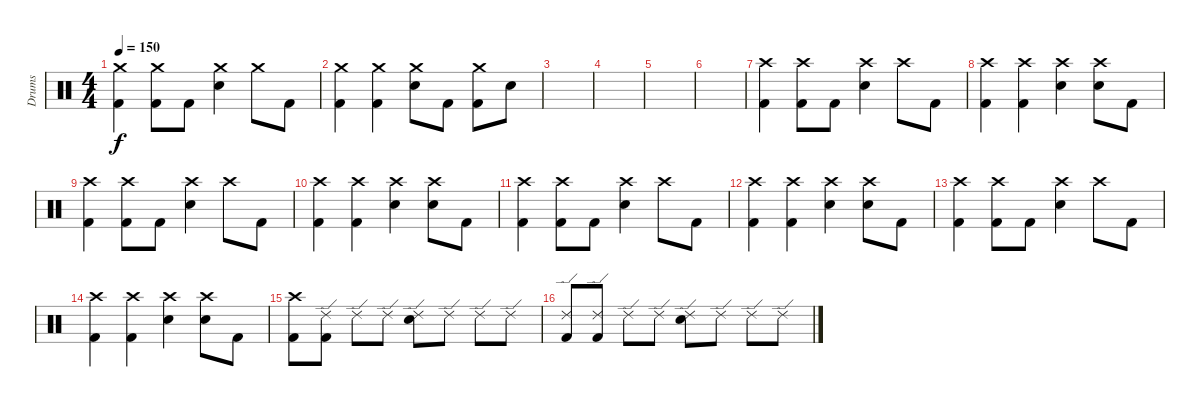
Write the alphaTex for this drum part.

\track ("Drums" "Drums") {instrument percussion}
\staff {score}
\articulation defaults
\ts (4 4)
\tempo 150
\clef neutral
\ks c
("Crash medium (hit)" "Kick (hit) 2").4{dy f} ("Crash medium (hit)" "Kick (hit) 2").8 "Kick (hit) 2".8 ("Crash medium (hit)" "Snare (hit) 2").4 "Crash medium (hit)".8 "Kick (hit) 2".8 |
("Crash medium (hit)" "Kick (hit) 2").4 ("Crash medium (hit)" "Kick (hit) 2").4 ("Crash medium (hit)" "Snare (hit) 2").8 "Kick (hit) 2".8 ("Crash medium (hit)" "Kick (hit) 2").8 "Snare (hit) 2".8 |
|
|
|
|
("Crash high (hit)" "Kick (hit) 2").4 ("Crash high (hit)" "Kick (hit) 2").8 "Kick (hit) 2".8 ("Crash high (hit)" "Snare (hit) 2").4 "Crash high (hit)".8 "Kick (hit) 2".8 |
("Crash high (hit)" "Kick (hit) 2").4 ("Crash high (hit)" "Kick (hit) 2").4 ("Crash high (hit)" "Snare (hit) 2").4 ("Crash high (hit)" "Snare (hit) 2").8 "Kick (hit) 2".8 |
("Crash high (hit)" "Kick (hit) 2").4 ("Crash high (hit)" "Kick (hit) 2").8 "Kick (hit) 2".8 ("Crash high (hit)" "Snare (hit) 2").4 "Crash high (hit)".8 "Kick (hit) 2".8 |
("Crash high (hit)" "Kick (hit) 2").4 ("Crash high (hit)" "Kick (hit) 2").4 ("Crash high (hit)" "Snare (hit) 2").4 ("Crash high (hit)" "Snare (hit) 2").8 "Kick (hit) 2".8 |
("Crash high (hit)" "Kick (hit) 2").4 ("Crash high (hit)" "Kick (hit) 2").8 "Kick (hit) 2".8 ("Crash high (hit)" "Snare (hit) 2").4 "Crash high (hit)".8 "Kick (hit) 2".8 |
("Crash high (hit)" "Kick (hit) 2").4 ("Crash high (hit)" "Kick (hit) 2").4 ("Crash high (hit)" "Snare (hit) 2").4 ("Crash high (hit)" "Snare (hit) 2").8 "Kick (hit) 2".8 |
("Crash high (hit)" "Kick (hit) 2").4 ("Crash high (hit)" "Kick (hit) 2").8 "Kick (hit) 2".8 ("Crash high (hit)" "Snare (hit) 2").4 "Crash high (hit)".8 "Kick (hit) 2".8 |
("Crash high (hit)" "Kick (hit) 2").4 ("Crash high (hit)" "Kick (hit) 2").4 ("Crash high (hit)" "Snare (hit) 2").4 ("Crash high (hit)" "Snare (hit) 2").8 "Kick (hit) 2".8 |
("Crash high (hit)" "Kick (hit) 2").8 ("Ride (edge) 2" "Kick (hit) 2").8 "Ride (edge) 2".8 "Ride (edge) 2".8 ("Ride (edge) 2" "Snare (hit) 2").8 "Ride (edge) 2".8 "Ride (edge) 2".8 "Ride (edge) 2".8 |
("Ride (edge) 2" "Kick (hit) 2").8 ("Ride (edge) 2" "Kick (hit) 2").8 "Ride (edge) 2".8 "Ride (edge) 2".8 ("Ride (edge) 2" "Snare (hit) 2").8 "Ride (edge) 2".8 "Ride (edge) 2".8 "Ride (edge) 2".8
